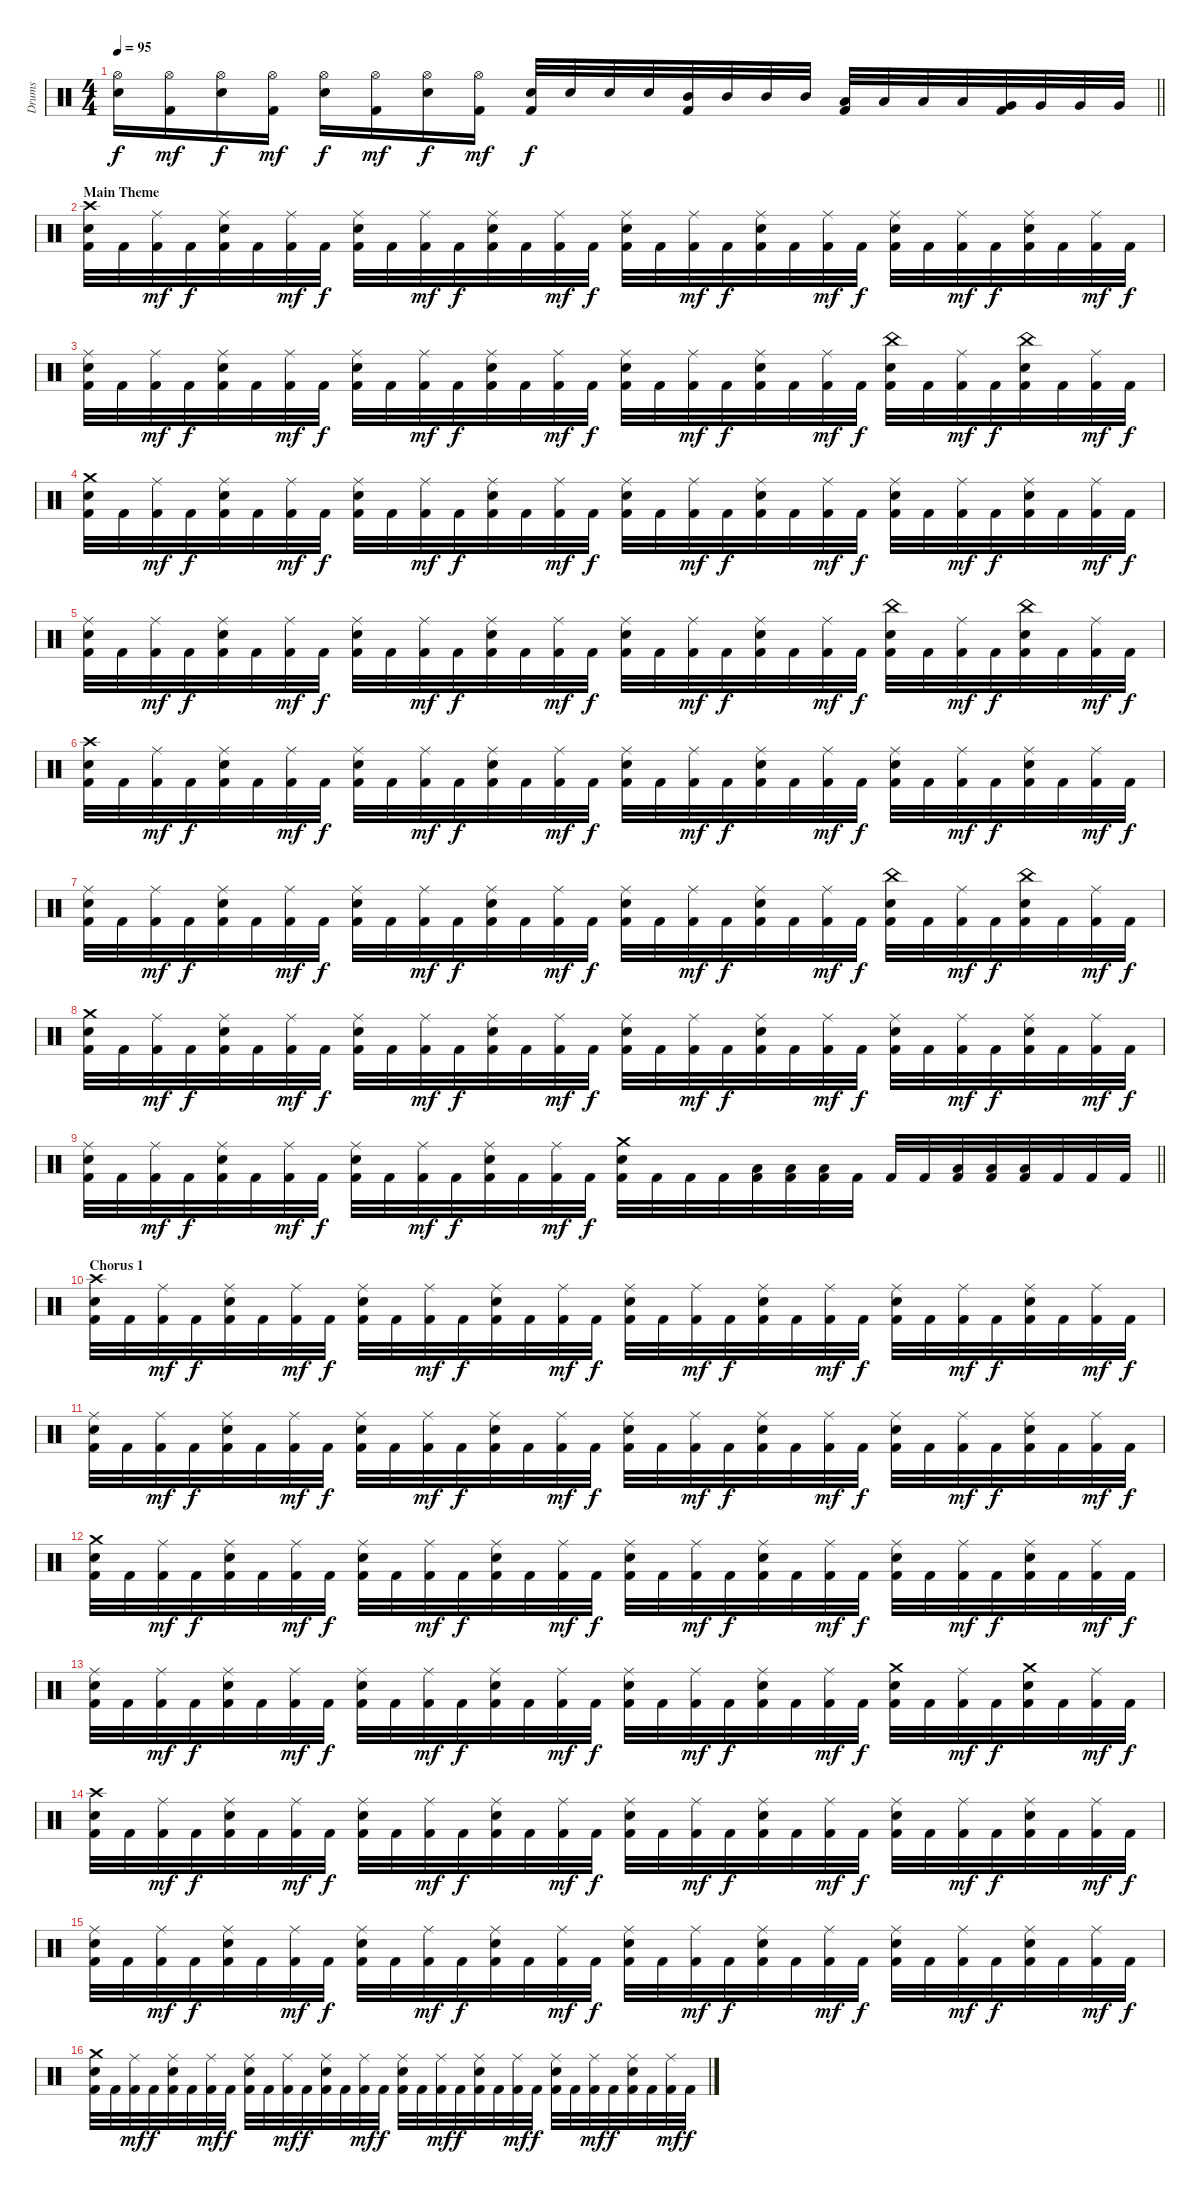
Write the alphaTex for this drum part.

\track ("Drums" "Drums") {instrument percussion}
\staff {score}
\articulation defaults
\ts (4 4)
\tempo 95
\clef neutral
\barLineRight lightlight
\ks c
("Hi-Hat (open)" "Snare (hit) 2").16{dy f} ("Hi-Hat (open)" "Kick (hit) 2").16{dy mf} ("Hi-Hat (open)" "Snare (hit) 2").16{dy f} ("Hi-Hat (open)" "Kick (hit) 2").16{dy mf} ("Hi-Hat (open)" "Snare (hit) 2").16{dy f} ("Hi-Hat (open)" "Kick (hit) 2").16{dy mf} ("Hi-Hat (open)" "Snare (hit) 2").16{dy f} ("Hi-Hat (open)" "Kick (hit) 2").16{dy mf} ("Snare (hit) 2" "Kick (hit) 2").32{dy f} "Snare (hit) 2".32 "Snare (hit) 2".32 "Snare (hit) 2".32 ("Mid Tom (hit)" "Kick (hit) 2").32 "Mid Tom (hit)".32 "Mid Tom (hit)".32 "Mid Tom (hit)".32 ("Low Tom (hit)" "Kick (hit) 2").32 "Low Tom (hit)".32 "Low Tom (hit)".32 "Low Tom (hit)".32 ("Very Low Tom (hit)" "Kick (hit) 2").32 "Very Low Tom (hit)".32 "Very Low Tom (hit)".32 "Very Low Tom (hit)".32 |
\section ("" "Main Theme")
("Crash high (hit)" "Snare (hit) 2" "Kick (hit) 2").32 "Kick (hit) 2".32 ("Ride (middle)" "Kick (hit) 2").32{dy mf} "Kick (hit) 2".32{dy f} ("Ride (middle)" "Snare (hit) 2" "Kick (hit) 2").32 "Kick (hit) 2".32 ("Ride (middle)" "Kick (hit) 2").32{dy mf} "Kick (hit) 2".32{dy f} ("Ride (middle)" "Snare (hit) 2" "Kick (hit) 2").32 "Kick (hit) 2".32 ("Ride (middle)" "Kick (hit) 2").32{dy mf} "Kick (hit) 2".32{dy f} ("Ride (middle)" "Snare (hit) 2" "Kick (hit) 2").32 "Kick (hit) 2".32 ("Ride (middle)" "Kick (hit) 2").32{dy mf} "Kick (hit) 2".32{dy f} ("Ride (middle)" "Snare (hit) 2" "Kick (hit) 2").32 "Kick (hit) 2".32 ("Ride (middle)" "Kick (hit) 2").32{dy mf} "Kick (hit) 2".32{dy f} ("Ride (middle)" "Snare (hit) 2" "Kick (hit) 2").32 "Kick (hit) 2".32 ("Ride (middle)" "Kick (hit) 2").32{dy mf} "Kick (hit) 2".32{dy f} ("Ride (middle)" "Snare (hit) 2" "Kick (hit) 2").32 "Kick (hit) 2".32 ("Ride (middle)" "Kick (hit) 2").32{dy mf} "Kick (hit) 2".32{dy f} ("Ride (middle)" "Snare (hit) 2" "Kick (hit) 2").32 "Kick (hit) 2".32 ("Ride (middle)" "Kick (hit) 2").32{dy mf} "Kick (hit) 2".32{dy f} |
("Ride (middle)" "Snare (hit) 2" "Kick (hit) 2").32 "Kick (hit) 2".32 ("Ride (middle)" "Kick (hit) 2").32{dy mf} "Kick (hit) 2".32{dy f} ("Ride (middle)" "Snare (hit) 2" "Kick (hit) 2").32 "Kick (hit) 2".32 ("Ride (middle)" "Kick (hit) 2").32{dy mf} "Kick (hit) 2".32{dy f} ("Ride (middle)" "Snare (hit) 2" "Kick (hit) 2").32 "Kick (hit) 2".32 ("Ride (middle)" "Kick (hit) 2").32{dy mf} "Kick (hit) 2".32{dy f} ("Ride (middle)" "Snare (hit) 2" "Kick (hit) 2").32 "Kick (hit) 2".32 ("Ride (middle)" "Kick (hit) 2").32{dy mf} "Kick (hit) 2".32{dy f} ("Ride (middle)" "Snare (hit) 2" "Kick (hit) 2").32 "Kick (hit) 2".32 ("Ride (middle)" "Kick (hit) 2").32{dy mf} "Kick (hit) 2".32{dy f} ("Ride (middle)" "Snare (hit) 2" "Kick (hit) 2").32 "Kick (hit) 2".32 ("Ride (middle)" "Kick (hit) 2").32{dy mf} "Kick (hit) 2".32{dy f} ("China (hit)" "Snare (hit) 2" "Kick (hit) 2").32 "Kick (hit) 2".32 ("Ride (middle)" "Kick (hit) 2").32{dy mf} "Kick (hit) 2".32{dy f} ("China (hit)" "Snare (hit) 2" "Kick (hit) 2").32 "Kick (hit) 2".32 ("Ride (middle)" "Kick (hit) 2").32{dy mf} "Kick (hit) 2".32{dy f} |
("Crash medium (hit)" "Snare (hit) 2" "Kick (hit) 2").32 "Kick (hit) 2".32 ("Ride (middle)" "Kick (hit) 2").32{dy mf} "Kick (hit) 2".32{dy f} ("Ride (middle)" "Snare (hit) 2" "Kick (hit) 2").32 "Kick (hit) 2".32 ("Ride (middle)" "Kick (hit) 2").32{dy mf} "Kick (hit) 2".32{dy f} ("Ride (middle)" "Snare (hit) 2" "Kick (hit) 2").32 "Kick (hit) 2".32 ("Ride (middle)" "Kick (hit) 2").32{dy mf} "Kick (hit) 2".32{dy f} ("Ride (middle)" "Snare (hit) 2" "Kick (hit) 2").32 "Kick (hit) 2".32 ("Ride (middle)" "Kick (hit) 2").32{dy mf} "Kick (hit) 2".32{dy f} ("Ride (middle)" "Snare (hit) 2" "Kick (hit) 2").32 "Kick (hit) 2".32 ("Ride (middle)" "Kick (hit) 2").32{dy mf} "Kick (hit) 2".32{dy f} ("Ride (middle)" "Snare (hit) 2" "Kick (hit) 2").32 "Kick (hit) 2".32 ("Ride (middle)" "Kick (hit) 2").32{dy mf} "Kick (hit) 2".32{dy f} ("Ride (middle)" "Snare (hit) 2" "Kick (hit) 2").32 "Kick (hit) 2".32 ("Ride (middle)" "Kick (hit) 2").32{dy mf} "Kick (hit) 2".32{dy f} ("Ride (middle)" "Snare (hit) 2" "Kick (hit) 2").32 "Kick (hit) 2".32 ("Ride (middle)" "Kick (hit) 2").32{dy mf} "Kick (hit) 2".32{dy f} |
("Ride (middle)" "Snare (hit) 2" "Kick (hit) 2").32 "Kick (hit) 2".32 ("Ride (middle)" "Kick (hit) 2").32{dy mf} "Kick (hit) 2".32{dy f} ("Ride (middle)" "Snare (hit) 2" "Kick (hit) 2").32 "Kick (hit) 2".32 ("Ride (middle)" "Kick (hit) 2").32{dy mf} "Kick (hit) 2".32{dy f} ("Ride (middle)" "Snare (hit) 2" "Kick (hit) 2").32 "Kick (hit) 2".32 ("Ride (middle)" "Kick (hit) 2").32{dy mf} "Kick (hit) 2".32{dy f} ("Ride (middle)" "Snare (hit) 2" "Kick (hit) 2").32 "Kick (hit) 2".32 ("Ride (middle)" "Kick (hit) 2").32{dy mf} "Kick (hit) 2".32{dy f} ("Ride (middle)" "Snare (hit) 2" "Kick (hit) 2").32 "Kick (hit) 2".32 ("Ride (middle)" "Kick (hit) 2").32{dy mf} "Kick (hit) 2".32{dy f} ("Ride (middle)" "Snare (hit) 2" "Kick (hit) 2").32 "Kick (hit) 2".32 ("Ride (middle)" "Kick (hit) 2").32{dy mf} "Kick (hit) 2".32{dy f} ("China (hit)" "Snare (hit) 2" "Kick (hit) 2").32 "Kick (hit) 2".32 ("Ride (middle)" "Kick (hit) 2").32{dy mf} "Kick (hit) 2".32{dy f} ("China (hit)" "Snare (hit) 2" "Kick (hit) 2").32 "Kick (hit) 2".32 ("Ride (middle)" "Kick (hit) 2").32{dy mf} "Kick (hit) 2".32{dy f} |
("Crash high (hit)" "Snare (hit) 2" "Kick (hit) 2").32 "Kick (hit) 2".32 ("Ride (middle)" "Kick (hit) 2").32{dy mf} "Kick (hit) 2".32{dy f} ("Ride (middle)" "Snare (hit) 2" "Kick (hit) 2").32 "Kick (hit) 2".32 ("Ride (middle)" "Kick (hit) 2").32{dy mf} "Kick (hit) 2".32{dy f} ("Ride (middle)" "Snare (hit) 2" "Kick (hit) 2").32 "Kick (hit) 2".32 ("Ride (middle)" "Kick (hit) 2").32{dy mf} "Kick (hit) 2".32{dy f} ("Ride (middle)" "Snare (hit) 2" "Kick (hit) 2").32 "Kick (hit) 2".32 ("Ride (middle)" "Kick (hit) 2").32{dy mf} "Kick (hit) 2".32{dy f} ("Ride (middle)" "Snare (hit) 2" "Kick (hit) 2").32 "Kick (hit) 2".32 ("Ride (middle)" "Kick (hit) 2").32{dy mf} "Kick (hit) 2".32{dy f} ("Ride (middle)" "Snare (hit) 2" "Kick (hit) 2").32 "Kick (hit) 2".32 ("Ride (middle)" "Kick (hit) 2").32{dy mf} "Kick (hit) 2".32{dy f} ("Ride (middle)" "Snare (hit) 2" "Kick (hit) 2").32 "Kick (hit) 2".32 ("Ride (middle)" "Kick (hit) 2").32{dy mf} "Kick (hit) 2".32{dy f} ("Ride (middle)" "Snare (hit) 2" "Kick (hit) 2").32 "Kick (hit) 2".32 ("Ride (middle)" "Kick (hit) 2").32{dy mf} "Kick (hit) 2".32{dy f} |
("Ride (middle)" "Snare (hit) 2" "Kick (hit) 2").32 "Kick (hit) 2".32 ("Ride (middle)" "Kick (hit) 2").32{dy mf} "Kick (hit) 2".32{dy f} ("Ride (middle)" "Snare (hit) 2" "Kick (hit) 2").32 "Kick (hit) 2".32 ("Ride (middle)" "Kick (hit) 2").32{dy mf} "Kick (hit) 2".32{dy f} ("Ride (middle)" "Snare (hit) 2" "Kick (hit) 2").32 "Kick (hit) 2".32 ("Ride (middle)" "Kick (hit) 2").32{dy mf} "Kick (hit) 2".32{dy f} ("Ride (middle)" "Snare (hit) 2" "Kick (hit) 2").32 "Kick (hit) 2".32 ("Ride (middle)" "Kick (hit) 2").32{dy mf} "Kick (hit) 2".32{dy f} ("Ride (middle)" "Snare (hit) 2" "Kick (hit) 2").32 "Kick (hit) 2".32 ("Ride (middle)" "Kick (hit) 2").32{dy mf} "Kick (hit) 2".32{dy f} ("Ride (middle)" "Snare (hit) 2" "Kick (hit) 2").32 "Kick (hit) 2".32 ("Ride (middle)" "Kick (hit) 2").32{dy mf} "Kick (hit) 2".32{dy f} ("China (hit)" "Snare (hit) 2" "Kick (hit) 2").32 "Kick (hit) 2".32 ("Ride (middle)" "Kick (hit) 2").32{dy mf} "Kick (hit) 2".32{dy f} ("China (hit)" "Snare (hit) 2" "Kick (hit) 2").32 "Kick (hit) 2".32 ("Ride (middle)" "Kick (hit) 2").32{dy mf} "Kick (hit) 2".32{dy f} |
("Crash medium (hit)" "Snare (hit) 2" "Kick (hit) 2").32 "Kick (hit) 2".32 ("Ride (middle)" "Kick (hit) 2").32{dy mf} "Kick (hit) 2".32{dy f} ("Ride (middle)" "Snare (hit) 2" "Kick (hit) 2").32 "Kick (hit) 2".32 ("Ride (middle)" "Kick (hit) 2").32{dy mf} "Kick (hit) 2".32{dy f} ("Ride (middle)" "Snare (hit) 2" "Kick (hit) 2").32 "Kick (hit) 2".32 ("Ride (middle)" "Kick (hit) 2").32{dy mf} "Kick (hit) 2".32{dy f} ("Ride (middle)" "Snare (hit) 2" "Kick (hit) 2").32 "Kick (hit) 2".32 ("Ride (middle)" "Kick (hit) 2").32{dy mf} "Kick (hit) 2".32{dy f} ("Ride (middle)" "Snare (hit) 2" "Kick (hit) 2").32 "Kick (hit) 2".32 ("Ride (middle)" "Kick (hit) 2").32{dy mf} "Kick (hit) 2".32{dy f} ("Ride (middle)" "Snare (hit) 2" "Kick (hit) 2").32 "Kick (hit) 2".32 ("Ride (middle)" "Kick (hit) 2").32{dy mf} "Kick (hit) 2".32{dy f} ("Ride (middle)" "Snare (hit) 2" "Kick (hit) 2").32 "Kick (hit) 2".32 ("Ride (middle)" "Kick (hit) 2").32{dy mf} "Kick (hit) 2".32{dy f} ("Ride (middle)" "Snare (hit) 2" "Kick (hit) 2").32 "Kick (hit) 2".32 ("Ride (middle)" "Kick (hit) 2").32{dy mf} "Kick (hit) 2".32{dy f} |
\barLineRight lightlight
("Ride (middle)" "Snare (hit) 2" "Kick (hit) 2").32 "Kick (hit) 2".32 ("Ride (middle)" "Kick (hit) 2").32{dy mf} "Kick (hit) 2".32{dy f} ("Ride (middle)" "Snare (hit) 2" "Kick (hit) 2").32 "Kick (hit) 2".32 ("Ride (middle)" "Kick (hit) 2").32{dy mf} "Kick (hit) 2".32{dy f} ("Ride (middle)" "Snare (hit) 2" "Kick (hit) 2").32 "Kick (hit) 2".32 ("Ride (middle)" "Kick (hit) 2").32{dy mf} "Kick (hit) 2".32{dy f} ("Ride (middle)" "Snare (hit) 2" "Kick (hit) 2").32 "Kick (hit) 2".32 ("Ride (middle)" "Kick (hit) 2").32{dy mf} "Kick (hit) 2".32{dy f} ("Crash medium (hit)" "Snare (hit) 2" "Kick (hit) 2").32 "Kick (hit) 2".32 "Kick (hit) 2".32 "Kick (hit) 2".32 ("Low Tom (hit)" "Kick (hit) 2").32 ("Low Tom (hit)" "Kick (hit) 2").32 ("Low Tom (hit)" "Kick (hit) 2").32 "Kick (hit) 2".32 "Kick (hit) 2".32 "Kick (hit) 2".32 ("Low Tom (hit)" "Kick (hit) 2").32 ("Low Tom (hit)" "Kick (hit) 2").32 ("Low Tom (hit)" "Kick (hit) 2").32 "Kick (hit) 2".32 "Kick (hit) 2".32 "Kick (hit) 2".32 |
\section ("" "Chorus 1")
("Crash high (hit)" "Snare (hit) 2" "Kick (hit) 2").32 "Kick (hit) 2".32 ("Ride (middle)" "Kick (hit) 2").32{dy mf} "Kick (hit) 2".32{dy f} ("Ride (middle)" "Snare (hit) 2" "Kick (hit) 2").32 "Kick (hit) 2".32 ("Ride (middle)" "Kick (hit) 2").32{dy mf} "Kick (hit) 2".32{dy f} ("Ride (middle)" "Snare (hit) 2" "Kick (hit) 2").32 "Kick (hit) 2".32 ("Ride (middle)" "Kick (hit) 2").32{dy mf} "Kick (hit) 2".32{dy f} ("Ride (middle)" "Snare (hit) 2" "Kick (hit) 2").32 "Kick (hit) 2".32 ("Ride (middle)" "Kick (hit) 2").32{dy mf} "Kick (hit) 2".32{dy f} ("Ride (middle)" "Snare (hit) 2" "Kick (hit) 2").32 "Kick (hit) 2".32 ("Ride (middle)" "Kick (hit) 2").32{dy mf} "Kick (hit) 2".32{dy f} ("Ride (middle)" "Snare (hit) 2" "Kick (hit) 2").32 "Kick (hit) 2".32 ("Ride (middle)" "Kick (hit) 2").32{dy mf} "Kick (hit) 2".32{dy f} ("Ride (middle)" "Snare (hit) 2" "Kick (hit) 2").32 "Kick (hit) 2".32 ("Ride (middle)" "Kick (hit) 2").32{dy mf} "Kick (hit) 2".32{dy f} ("Ride (middle)" "Snare (hit) 2" "Kick (hit) 2").32 "Kick (hit) 2".32 ("Ride (middle)" "Kick (hit) 2").32{dy mf} "Kick (hit) 2".32{dy f} |
("Ride (middle)" "Snare (hit) 2" "Kick (hit) 2").32 "Kick (hit) 2".32 ("Ride (middle)" "Kick (hit) 2").32{dy mf} "Kick (hit) 2".32{dy f} ("Ride (middle)" "Snare (hit) 2" "Kick (hit) 2").32 "Kick (hit) 2".32 ("Ride (middle)" "Kick (hit) 2").32{dy mf} "Kick (hit) 2".32{dy f} ("Ride (middle)" "Snare (hit) 2" "Kick (hit) 2").32 "Kick (hit) 2".32 ("Ride (middle)" "Kick (hit) 2").32{dy mf} "Kick (hit) 2".32{dy f} ("Ride (middle)" "Snare (hit) 2" "Kick (hit) 2").32 "Kick (hit) 2".32 ("Ride (middle)" "Kick (hit) 2").32{dy mf} "Kick (hit) 2".32{dy f} ("Ride (middle)" "Snare (hit) 2" "Kick (hit) 2").32 "Kick (hit) 2".32 ("Ride (middle)" "Kick (hit) 2").32{dy mf} "Kick (hit) 2".32{dy f} ("Ride (middle)" "Snare (hit) 2" "Kick (hit) 2").32 "Kick (hit) 2".32 ("Ride (middle)" "Kick (hit) 2").32{dy mf} "Kick (hit) 2".32{dy f} ("Ride (middle)" "Snare (hit) 2" "Kick (hit) 2").32 "Kick (hit) 2".32 ("Ride (middle)" "Kick (hit) 2").32{dy mf} "Kick (hit) 2".32{dy f} ("Ride (middle)" "Snare (hit) 2" "Kick (hit) 2").32 "Kick (hit) 2".32 ("Ride (middle)" "Kick (hit) 2").32{dy mf} "Kick (hit) 2".32{dy f} |
("Crash medium (hit)" "Snare (hit) 2" "Kick (hit) 2").32 "Kick (hit) 2".32 ("Ride (middle)" "Kick (hit) 2").32{dy mf} "Kick (hit) 2".32{dy f} ("Ride (middle)" "Snare (hit) 2" "Kick (hit) 2").32 "Kick (hit) 2".32 ("Ride (middle)" "Kick (hit) 2").32{dy mf} "Kick (hit) 2".32{dy f} ("Ride (middle)" "Snare (hit) 2" "Kick (hit) 2").32 "Kick (hit) 2".32 ("Ride (middle)" "Kick (hit) 2").32{dy mf} "Kick (hit) 2".32{dy f} ("Ride (middle)" "Snare (hit) 2" "Kick (hit) 2").32 "Kick (hit) 2".32 ("Ride (middle)" "Kick (hit) 2").32{dy mf} "Kick (hit) 2".32{dy f} ("Ride (middle)" "Snare (hit) 2" "Kick (hit) 2").32 "Kick (hit) 2".32 ("Ride (middle)" "Kick (hit) 2").32{dy mf} "Kick (hit) 2".32{dy f} ("Ride (middle)" "Snare (hit) 2" "Kick (hit) 2").32 "Kick (hit) 2".32 ("Ride (middle)" "Kick (hit) 2").32{dy mf} "Kick (hit) 2".32{dy f} ("Ride (middle)" "Snare (hit) 2" "Kick (hit) 2").32 "Kick (hit) 2".32 ("Ride (middle)" "Kick (hit) 2").32{dy mf} "Kick (hit) 2".32{dy f} ("Ride (middle)" "Snare (hit) 2" "Kick (hit) 2").32 "Kick (hit) 2".32 ("Ride (middle)" "Kick (hit) 2").32{dy mf} "Kick (hit) 2".32{dy f} |
("Ride (middle)" "Snare (hit) 2" "Kick (hit) 2").32 "Kick (hit) 2".32 ("Ride (middle)" "Kick (hit) 2").32{dy mf} "Kick (hit) 2".32{dy f} ("Ride (middle)" "Snare (hit) 2" "Kick (hit) 2").32 "Kick (hit) 2".32 ("Ride (middle)" "Kick (hit) 2").32{dy mf} "Kick (hit) 2".32{dy f} ("Ride (middle)" "Snare (hit) 2" "Kick (hit) 2").32 "Kick (hit) 2".32 ("Ride (middle)" "Kick (hit) 2").32{dy mf} "Kick (hit) 2".32{dy f} ("Ride (middle)" "Snare (hit) 2" "Kick (hit) 2").32 "Kick (hit) 2".32 ("Ride (middle)" "Kick (hit) 2").32{dy mf} "Kick (hit) 2".32{dy f} ("Ride (middle)" "Snare (hit) 2" "Kick (hit) 2").32 "Kick (hit) 2".32 ("Ride (middle)" "Kick (hit) 2").32{dy mf} "Kick (hit) 2".32{dy f} ("Ride (middle)" "Snare (hit) 2" "Kick (hit) 2").32 "Kick (hit) 2".32 ("Ride (middle)" "Kick (hit) 2").32{dy mf} "Kick (hit) 2".32{dy f} ("Crash medium (hit)" "Snare (hit) 2" "Kick (hit) 2").32 "Kick (hit) 2".32 ("Ride (middle)" "Kick (hit) 2").32{dy mf} "Kick (hit) 2".32{dy f} ("Crash medium (hit)" "Snare (hit) 2" "Kick (hit) 2").32 "Kick (hit) 2".32 ("Ride (middle)" "Kick (hit) 2").32{dy mf} "Kick (hit) 2".32{dy f} |
("Crash high (hit)" "Snare (hit) 2" "Kick (hit) 2").32 "Kick (hit) 2".32 ("Ride (middle)" "Kick (hit) 2").32{dy mf} "Kick (hit) 2".32{dy f} ("Ride (middle)" "Snare (hit) 2" "Kick (hit) 2").32 "Kick (hit) 2".32 ("Ride (middle)" "Kick (hit) 2").32{dy mf} "Kick (hit) 2".32{dy f} ("Ride (middle)" "Snare (hit) 2" "Kick (hit) 2").32 "Kick (hit) 2".32 ("Ride (middle)" "Kick (hit) 2").32{dy mf} "Kick (hit) 2".32{dy f} ("Ride (middle)" "Snare (hit) 2" "Kick (hit) 2").32 "Kick (hit) 2".32 ("Ride (middle)" "Kick (hit) 2").32{dy mf} "Kick (hit) 2".32{dy f} ("Ride (middle)" "Snare (hit) 2" "Kick (hit) 2").32 "Kick (hit) 2".32 ("Ride (middle)" "Kick (hit) 2").32{dy mf} "Kick (hit) 2".32{dy f} ("Ride (middle)" "Snare (hit) 2" "Kick (hit) 2").32 "Kick (hit) 2".32 ("Ride (middle)" "Kick (hit) 2").32{dy mf} "Kick (hit) 2".32{dy f} ("Ride (middle)" "Snare (hit) 2" "Kick (hit) 2").32 "Kick (hit) 2".32 ("Ride (middle)" "Kick (hit) 2").32{dy mf} "Kick (hit) 2".32{dy f} ("Ride (middle)" "Snare (hit) 2" "Kick (hit) 2").32 "Kick (hit) 2".32 ("Ride (middle)" "Kick (hit) 2").32{dy mf} "Kick (hit) 2".32{dy f} |
("Ride (middle)" "Snare (hit) 2" "Kick (hit) 2").32 "Kick (hit) 2".32 ("Ride (middle)" "Kick (hit) 2").32{dy mf} "Kick (hit) 2".32{dy f} ("Ride (middle)" "Snare (hit) 2" "Kick (hit) 2").32 "Kick (hit) 2".32 ("Ride (middle)" "Kick (hit) 2").32{dy mf} "Kick (hit) 2".32{dy f} ("Ride (middle)" "Snare (hit) 2" "Kick (hit) 2").32 "Kick (hit) 2".32 ("Ride (middle)" "Kick (hit) 2").32{dy mf} "Kick (hit) 2".32{dy f} ("Ride (middle)" "Snare (hit) 2" "Kick (hit) 2").32 "Kick (hit) 2".32 ("Ride (middle)" "Kick (hit) 2").32{dy mf} "Kick (hit) 2".32{dy f} ("Ride (middle)" "Snare (hit) 2" "Kick (hit) 2").32 "Kick (hit) 2".32 ("Ride (middle)" "Kick (hit) 2").32{dy mf} "Kick (hit) 2".32{dy f} ("Ride (middle)" "Snare (hit) 2" "Kick (hit) 2").32 "Kick (hit) 2".32 ("Ride (middle)" "Kick (hit) 2").32{dy mf} "Kick (hit) 2".32{dy f} ("Ride (middle)" "Snare (hit) 2" "Kick (hit) 2").32 "Kick (hit) 2".32 ("Ride (middle)" "Kick (hit) 2").32{dy mf} "Kick (hit) 2".32{dy f} ("Ride (middle)" "Snare (hit) 2" "Kick (hit) 2").32 "Kick (hit) 2".32 ("Ride (middle)" "Kick (hit) 2").32{dy mf} "Kick (hit) 2".32{dy f} |
("Crash medium (hit)" "Snare (hit) 2" "Kick (hit) 2").32 "Kick (hit) 2".32 ("Ride (middle)" "Kick (hit) 2").32{dy mf} "Kick (hit) 2".32{dy f} ("Ride (middle)" "Snare (hit) 2" "Kick (hit) 2").32 "Kick (hit) 2".32 ("Ride (middle)" "Kick (hit) 2").32{dy mf} "Kick (hit) 2".32{dy f} ("Ride (middle)" "Snare (hit) 2" "Kick (hit) 2").32 "Kick (hit) 2".32 ("Ride (middle)" "Kick (hit) 2").32{dy mf} "Kick (hit) 2".32{dy f} ("Ride (middle)" "Snare (hit) 2" "Kick (hit) 2").32 "Kick (hit) 2".32 ("Ride (middle)" "Kick (hit) 2").32{dy mf} "Kick (hit) 2".32{dy f} ("Ride (middle)" "Snare (hit) 2" "Kick (hit) 2").32 "Kick (hit) 2".32 ("Ride (middle)" "Kick (hit) 2").32{dy mf} "Kick (hit) 2".32{dy f} ("Ride (middle)" "Snare (hit) 2" "Kick (hit) 2").32 "Kick (hit) 2".32 ("Ride (middle)" "Kick (hit) 2").32{dy mf} "Kick (hit) 2".32{dy f} ("Ride (middle)" "Snare (hit) 2" "Kick (hit) 2").32 "Kick (hit) 2".32 ("Ride (middle)" "Kick (hit) 2").32{dy mf} "Kick (hit) 2".32{dy f} ("Ride (middle)" "Snare (hit) 2" "Kick (hit) 2").32 "Kick (hit) 2".32 ("Ride (middle)" "Kick (hit) 2").32{dy mf} "Kick (hit) 2".32{dy f}
